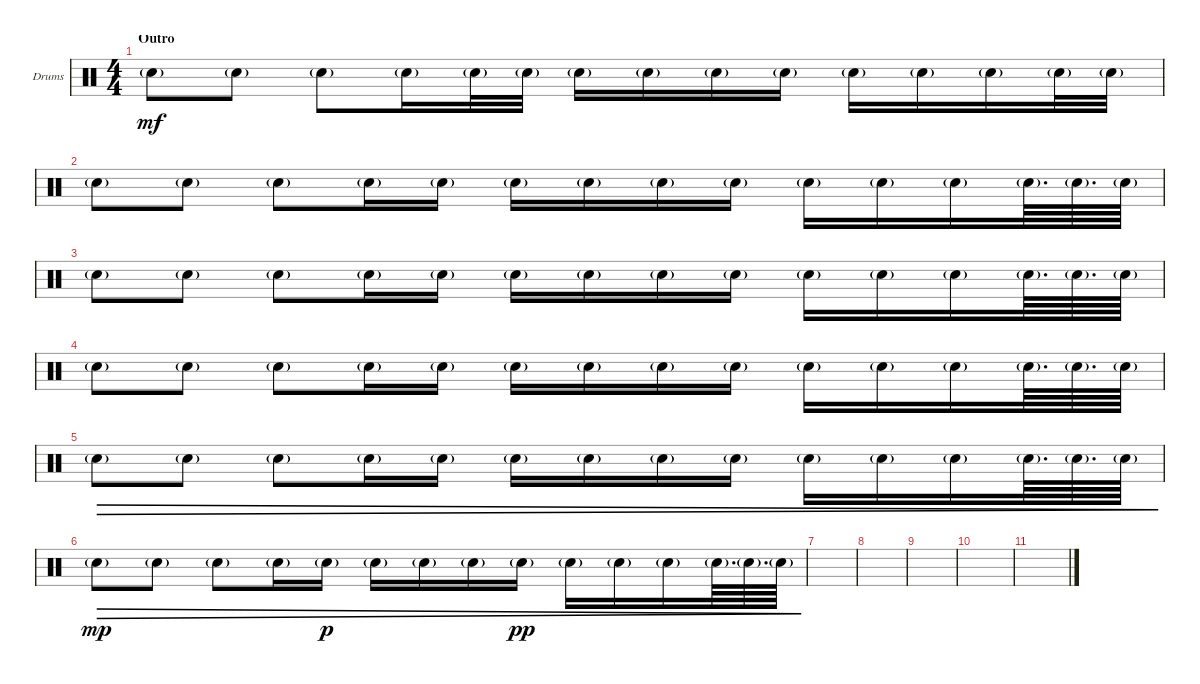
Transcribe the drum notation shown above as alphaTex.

\bracketExtendMode groupsimilarinstruments
\firstSystemTrackNameOrientation horizontal
\otherSystemsTrackNameOrientation horizontal
\track ("Drums" "Drums") {instrument percussion}
\staff {score}
\articulation defaults
\ts (4 4)
\section ("" "Outro")
\tempo (76 hide)
\tempo (70 0.5 hide)
\clef neutral
\ks c "Snare (hit) 2"{g}.8{dy mf} "Snare (hit) 2"{g}.8 "Snare (hit) 2"{g}.8 "Snare (hit) 2"{g}.16 "Snare (hit) 2"{g}.32 "Snare (hit) 2"{g}.32 "Snare (hit) 2"{g}.16 "Snare (hit) 2"{g}.16 "Snare (hit) 2"{g}.16 "Snare (hit) 2"{g}.16 "Snare (hit) 2"{g}.16 "Snare (hit) 2"{g}.16 "Snare (hit) 2"{g}.16 "Snare (hit) 2"{g}.32 "Snare (hit) 2"{g}.32
|
\tempo (65 hide)
\tempo (62 0.75 hide)
"Snare (hit) 2"{g}.8 "Snare (hit) 2"{g}.8 "Snare (hit) 2"{g}.8 "Snare (hit) 2"{g}.16 "Snare (hit) 2"{g}.16 "Snare (hit) 2"{g}.16 "Snare (hit) 2"{g}.16 "Snare (hit) 2"{g}.16 "Snare (hit) 2"{g}.16 "Snare (hit) 2"{g}.16 "Snare (hit) 2"{g}.16 "Snare (hit) 2"{g}.16 "Snare (hit) 2"{g}.64{d} "Snare (hit) 2"{g}.64{d} "Snare (hit) 2"{g}.64 |
\tempo (60 hide)
"Snare (hit) 2"{g}.8 "Snare (hit) 2"{g}.8 "Snare (hit) 2"{g}.8 "Snare (hit) 2"{g}.16 "Snare (hit) 2"{g}.16 "Snare (hit) 2"{g}.16 "Snare (hit) 2"{g}.16 "Snare (hit) 2"{g}.16 "Snare (hit) 2"{g}.16 "Snare (hit) 2"{g}.16 "Snare (hit) 2"{g}.16 "Snare (hit) 2"{g}.16 "Snare (hit) 2"{g}.64{d} "Snare (hit) 2"{g}.64{d} "Snare (hit) 2"{g}.64 |
"Snare (hit) 2"{g}.8 "Snare (hit) 2"{g}.8 "Snare (hit) 2"{g}.8 "Snare (hit) 2"{g}.16 "Snare (hit) 2"{g}.16 "Snare (hit) 2"{g}.16 "Snare (hit) 2"{g}.16 "Snare (hit) 2"{g}.16 "Snare (hit) 2"{g}.16 "Snare (hit) 2"{g}.16 "Snare (hit) 2"{g}.16 "Snare (hit) 2"{g}.16 "Snare (hit) 2"{g}.64{d} "Snare (hit) 2"{g}.64{d} "Snare (hit) 2"{g}.64 |
\tempo (60 hide)
\tempo (65 0.4375 hide)
\tempo (62 0.5625 hide)
"Snare (hit) 2"{g}.8{dec} "Snare (hit) 2"{g}.8{dec} "Snare (hit) 2"{g}.8{dec} "Snare (hit) 2"{g}.16{dec} "Snare (hit) 2"{g}.16{dec} "Snare (hit) 2"{g}.16{dec} "Snare (hit) 2"{g}.16{dec} "Snare (hit) 2"{g}.16{dec} "Snare (hit) 2"{g}.16{dec} "Snare (hit) 2"{g}.16{dec} "Snare (hit) 2"{g}.16{dec} "Snare (hit) 2"{g}.16{dec} "Snare (hit) 2"{g}.64{d dec} "Snare (hit) 2"{g}.64{d dec} "Snare (hit) 2"{g}.64{dec} |
\tempo (60 hide)
\tempo (40 0.5 hide)
"Snare (hit) 2"{g}.8{dec dy mp} "Snare (hit) 2"{g}.8{dec} "Snare (hit) 2"{g}.8{dec} "Snare (hit) 2"{g}.16{dec} "Snare (hit) 2"{g}.16{dec dy p} "Snare (hit) 2"{g}.16{dec} "Snare (hit) 2"{g}.16{dec} "Snare (hit) 2"{g}.16{dec} "Snare (hit) 2"{g}.16{dec dy pp} "Snare (hit) 2"{g}.16{dec} "Snare (hit) 2"{g}.16{dec} "Snare (hit) 2"{g}.16{dec} "Snare (hit) 2"{g}.64{d dec} "Snare (hit) 2"{g}.64{d dec} "Snare (hit) 2"{g}.64{dec} |
\tempo (76 hide)
|
\tempo (70 hide)
|
|
|
\tempo (30 hide)
